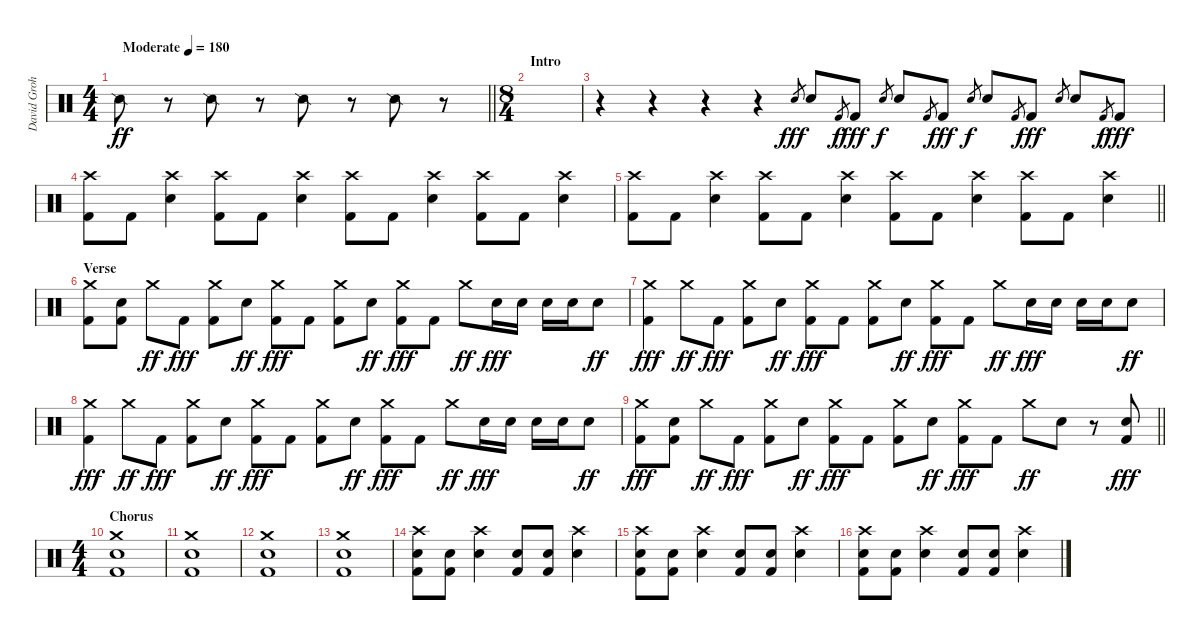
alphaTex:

\track ("David Grohl" "David Groh") {instrument percussion}
\staff {score}
\articulation defaults
\ts (4 4)
\tempo (180 "Moderate")
\clef neutral
\barLineRight lightlight
\ks c "Snare (side stick) 2".8{dy ff}
r.8 "Snare (side stick) 2".8 r.8 "Snare (side stick) 2".8 r.8 "Snare (side stick) 2".8 r.8 |
\ts (8 4)
\section ("" "Intro")
|
r.4 r.4 r.4 r.4 "Electric Snare (hit)".8{gr dy fff} "Electric Snare (hit)".8 "Kick (hit) 2".8{gr dy f} "Kick (hit) 2".8{dy fff} "Electric Snare (hit)".8{gr dy f} "Electric Snare (hit)".8 "Kick (hit) 2".8{gr} "Kick (hit) 2".8{dy fff} "Electric Snare (hit)".8{gr dy f} "Electric Snare (hit)".8 "Kick (hit) 2".8{gr} "Kick (hit) 2".8{dy fff} "Electric Snare (hit)".8{gr} "Electric Snare (hit)".8 "Kick (hit) 2".8{gr dy f} "Kick (hit) 2".8{dy fff} |
("Crash high (hit)" "Kick (hit) 2").8 "Kick (hit) 2".8 ("Crash high (hit)" "Electric Snare (hit)").4 ("Crash high (hit)" "Kick (hit) 2").8 "Kick (hit) 2".8 ("Crash high (hit)" "Electric Snare (hit)").4 ("Crash high (hit)" "Kick (hit) 2").8 "Kick (hit) 2".8 ("Crash high (hit)" "Electric Snare (hit)").4 ("Crash high (hit)" "Kick (hit) 2").8 "Kick (hit) 2".8 ("Crash high (hit)" "Electric Snare (hit)").4 |
\barLineRight lightlight
("Crash high (hit)" "Kick (hit) 2").8 "Kick (hit) 2".8 ("Crash high (hit)" "Electric Snare (hit)").4 ("Crash high (hit)" "Kick (hit) 2").8 "Kick (hit) 2".8 ("Crash high (hit)" "Electric Snare (hit)").4 ("Crash high (hit)" "Kick (hit) 2").8 "Kick (hit) 2".8 ("Crash high (hit)" "Electric Snare (hit)").4 ("Crash high (hit)" "Kick (hit) 2").8 "Kick (hit) 2".8 ("Crash high (hit)" "Electric Snare (hit)").4 |
\section ("" "Verse")
("Crash medium (hit)" "Kick (hit) 2").8 ("Electric Snare (hit)" "Kick (hit) 2").8 "Crash medium (hit)".8{dy ff} "Kick (hit) 2".8{dy fff} ("Crash medium (hit)" "Kick (hit) 2").8 "Electric Snare (hit)".8{dy ff} ("Crash medium (hit)" "Kick (hit) 2").8{dy fff} "Kick (hit) 2".8 ("Crash medium (hit)" "Kick (hit) 2").8 "Electric Snare (hit)".8{dy ff} ("Crash medium (hit)" "Kick (hit) 2").8{dy fff} "Kick (hit) 2".8 "Crash medium (hit)".8{dy ff} "Electric Snare (hit)".16{dy fff} "Electric Snare (hit)".16 "Electric Snare (hit)".16 "Electric Snare (hit)".16 "Electric Snare (hit)".8{dy ff} |
("Crash medium (hit)" "Kick (hit) 2").4{dy fff} "Crash medium (hit)".8{dy ff} "Kick (hit) 2".8{dy fff} ("Crash medium (hit)" "Kick (hit) 2").8 "Electric Snare (hit)".8{dy ff} ("Crash medium (hit)" "Kick (hit) 2").8{dy fff} "Kick (hit) 2".8 ("Crash medium (hit)" "Kick (hit) 2").8 "Electric Snare (hit)".8{dy ff} ("Crash medium (hit)" "Kick (hit) 2").8{dy fff} "Kick (hit) 2".8 "Crash medium (hit)".8{dy ff} "Electric Snare (hit)".16{dy fff} "Electric Snare (hit)".16 "Electric Snare (hit)".16 "Electric Snare (hit)".16 "Electric Snare (hit)".8{dy ff} |
("Crash medium (hit)" "Kick (hit) 2").4{dy fff} "Crash medium (hit)".8{dy ff} "Kick (hit) 2".8{dy fff} ("Crash medium (hit)" "Kick (hit) 2").8 "Electric Snare (hit)".8{dy ff} ("Crash medium (hit)" "Kick (hit) 2").8{dy fff} "Kick (hit) 2".8 ("Crash medium (hit)" "Kick (hit) 2").8 "Electric Snare (hit)".8{dy ff} ("Crash medium (hit)" "Kick (hit) 2").8{dy fff} "Kick (hit) 2".8 "Crash medium (hit)".8{dy ff} "Electric Snare (hit)".16{dy fff} "Electric Snare (hit)".16 "Electric Snare (hit)".16 "Electric Snare (hit)".16 "Electric Snare (hit)".8{dy ff} |
\barLineRight lightlight
("Crash medium (hit)" "Kick (hit) 2").8{dy fff} ("Electric Snare (hit)" "Kick (hit) 2").8 "Crash medium (hit)".8{dy ff} "Kick (hit) 2".8{dy fff} ("Crash medium (hit)" "Kick (hit) 2").8 "Electric Snare (hit)".8{dy ff} ("Crash medium (hit)" "Kick (hit) 2").8{dy fff} "Kick (hit) 2".8 ("Crash medium (hit)" "Kick (hit) 2").8 "Electric Snare (hit)".8{dy ff} ("Crash medium (hit)" "Kick (hit) 2").8{dy fff} "Kick (hit) 2".8 "Crash medium (hit)".8{dy ff} "Electric Snare (hit)".8 r.8 ("Electric Snare (hit)" "Kick (hit) 2").8{dy fff} |
\ts (4 4)
\section ("" "Chorus")
("Crash medium (hit)" "Electric Snare (hit)" "Kick (hit) 2").1 |
("Crash medium (hit)" "Electric Snare (hit)" "Kick (hit) 2").1 |
("Crash medium (hit)" "Electric Snare (hit)" "Kick (hit) 2").1 |
("Crash medium (hit)" "Electric Snare (hit)" "Kick (hit) 2").1 |
("Crash high (hit)" "Electric Snare (hit)" "Kick (hit) 2").8 ("Electric Snare (hit)" "Kick (hit) 2").8 ("Crash high (hit)" "Electric Snare (hit)").4 ("Electric Snare (hit)" "Kick (hit) 2").8 ("Electric Snare (hit)" "Kick (hit) 2").8 ("Crash high (hit)" "Electric Snare (hit)").4 |
("Crash high (hit)" "Electric Snare (hit)" "Kick (hit) 2").8 ("Electric Snare (hit)" "Kick (hit) 2").8 ("Crash high (hit)" "Electric Snare (hit)").4 ("Electric Snare (hit)" "Kick (hit) 2").8 ("Electric Snare (hit)" "Kick (hit) 2").8 ("Crash high (hit)" "Electric Snare (hit)").4 |
("Crash high (hit)" "Electric Snare (hit)" "Kick (hit) 2").8 ("Electric Snare (hit)" "Kick (hit) 2").8 ("Crash high (hit)" "Electric Snare (hit)").4 ("Electric Snare (hit)" "Kick (hit) 2").8 ("Electric Snare (hit)" "Kick (hit) 2").8 ("Crash high (hit)" "Electric Snare (hit)").4
